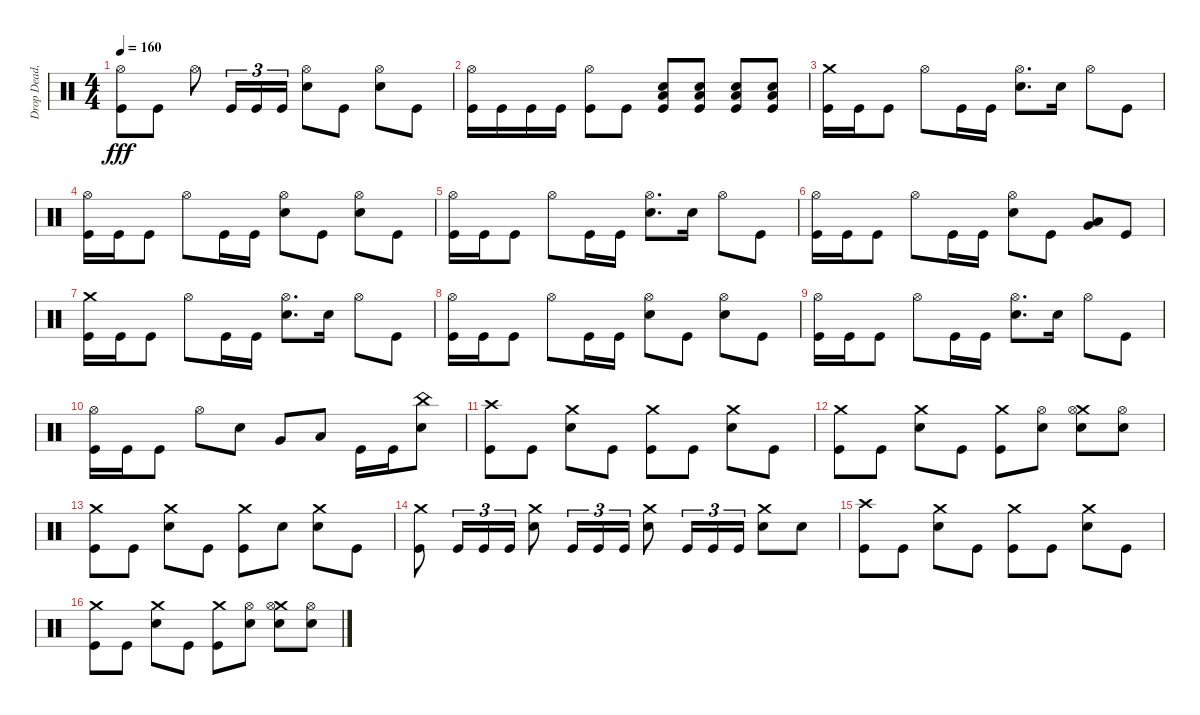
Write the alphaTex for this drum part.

\track ("Drop Dead, Johnny" "Drop Dead,") {instrument percussion}
\staff {score}
\articulation defaults
\ts (4 4)
\tempo 160
\clef neutral
\ks c
("Hi-Hat (open)" "Kick (hit)").8{dy fff} "Kick (hit)".8 "Hi-Hat (open)".8 "Kick (hit)".16{tu (3 2)} "Kick (hit)".16{tu (3 2)} "Kick (hit)".16{tu (3 2)} ("Hi-Hat (open)" "Electric Snare (hit)").8 "Kick (hit)".8 ("Hi-Hat (open)" "Electric Snare (hit)").8 "Kick (hit)".8 |
("Hi-Hat (open)" "Kick (hit)").16 "Kick (hit)".16 "Kick (hit)".16 "Kick (hit)".16 ("Hi-Hat (open)" "Kick (hit)").8 "Kick (hit)".8 ("Low Floor Tom (hit)" "Electric Snare (hit)" "Kick (hit)").8 ("Low Floor Tom (hit)" "Electric Snare (hit)" "Kick (hit)").8 ("Low Floor Tom (hit)" "Electric Snare (hit)" "Kick (hit)").8 ("Low Floor Tom (hit)" "Electric Snare (hit)" "Kick (hit)").8 |
("Crash medium (hit)" "Kick (hit)").16 "Kick (hit)".16 "Kick (hit)".8 "Hi-Hat (open)".8 "Kick (hit)".16 "Kick (hit)".16 ("Hi-Hat (open)" "Electric Snare (hit)").8{d} "Electric Snare (hit)".16 "Hi-Hat (open)".8 "Kick (hit)".8 |
("Hi-Hat (open)" "Kick (hit)").16 "Kick (hit)".16 "Kick (hit)".8 "Hi-Hat (open)".8 "Kick (hit)".16 "Kick (hit)".16 ("Hi-Hat (open)" "Electric Snare (hit)").8 "Kick (hit)".8 ("Hi-Hat (open)" "Electric Snare (hit)").8 "Kick (hit)".8 |
("Hi-Hat (open)" "Kick (hit)").16 "Kick (hit)".16 "Kick (hit)".8 "Hi-Hat (open)".8 "Kick (hit)".16 "Kick (hit)".16 ("Hi-Hat (open)" "Electric Snare (hit)").8{d} "Electric Snare (hit)".16 "Hi-Hat (open)".8 "Kick (hit)".8 |
("Hi-Hat (open)" "Kick (hit)").16 "Kick (hit)".16 "Kick (hit)".8 "Hi-Hat (open)".8 "Kick (hit)".16 "Kick (hit)".16 ("Hi-Hat (open)" "Electric Snare (hit)").8 "Kick (hit)".8 ("Very Low Tom (hit)" "Low Floor Tom (hit)").8 "Kick (hit)".8 |
("Crash medium (hit)" "Kick (hit)").16 "Kick (hit)".16 "Kick (hit)".8 "Hi-Hat (open)".8 "Kick (hit)".16 "Kick (hit)".16 ("Hi-Hat (open)" "Electric Snare (hit)").8{d} "Electric Snare (hit)".16 "Hi-Hat (open)".8 "Kick (hit)".8 |
("Hi-Hat (open)" "Kick (hit)").16 "Kick (hit)".16 "Kick (hit)".8 "Hi-Hat (open)".8 "Kick (hit)".16 "Kick (hit)".16 ("Hi-Hat (open)" "Electric Snare (hit)").8 "Kick (hit)".8 ("Hi-Hat (open)" "Electric Snare (hit)").8 "Kick (hit)".8 |
("Hi-Hat (open)" "Kick (hit)").16 "Kick (hit)".16 "Kick (hit)".8 "Hi-Hat (open)".8 "Kick (hit)".16 "Kick (hit)".16 ("Hi-Hat (open)" "Electric Snare (hit)").8{d} "Electric Snare (hit)".16 "Hi-Hat (open)".8 "Kick (hit)".8 |
("Hi-Hat (open)" "Kick (hit)").16 "Kick (hit)".16 "Kick (hit)".8 "Hi-Hat (open)".8 "Electric Snare (hit)".8 "Very Low Tom (hit)".8 "Low Floor Tom (hit)".8 "Kick (hit)".16 "Kick (hit)".16 ("China (hit)" "Electric Snare (hit)").8 |
("Crash high (hit)" "Kick (hit)").8 "Kick (hit)".8 ("Crash medium (hit)" "Electric Snare (hit)").8 "Kick (hit)".8 ("Crash medium (hit)" "Kick (hit)").8 "Kick (hit)".8 ("Crash medium (hit)" "Electric Snare (hit)").8 "Kick (hit)".8 |
("Crash medium (hit)" "Kick (hit)").8 "Kick (hit)".8 ("Crash medium (hit)" "Electric Snare (hit)").8 "Kick (hit)".8 ("Crash medium (hit)" "Kick (hit)").8 ("Hi-Hat (open)" "Electric Snare (hit)").8 ("Crash medium (hit)" "Hi-Hat (open)" "Electric Snare (hit)").8 ("Hi-Hat (open)" "Electric Snare (hit)").8 |
("Crash medium (hit)" "Kick (hit)").8 "Kick (hit)".8 ("Crash medium (hit)" "Electric Snare (hit)").8 "Kick (hit)".8 ("Crash medium (hit)" "Kick (hit)").8 "Electric Snare (hit)".8 ("Crash medium (hit)" "Electric Snare (hit)").8 "Kick (hit)".8 |
("Crash medium (hit)" "Kick (hit)").8 "Kick (hit)".16{tu (3 2)} "Kick (hit)".16{tu (3 2)} "Kick (hit)".16{tu (3 2)} ("Crash medium (hit)" "Electric Snare (hit)").8 "Kick (hit)".16{tu (3 2)} "Kick (hit)".16{tu (3 2)} "Kick (hit)".16{tu (3 2)} ("Crash medium (hit)" "Electric Snare (hit)").8 "Kick (hit)".16{tu (3 2)} "Kick (hit)".16{tu (3 2)} "Kick (hit)".16{tu (3 2)} ("Crash medium (hit)" "Electric Snare (hit)").8 "Electric Snare (hit)".8 |
("Crash high (hit)" "Kick (hit)").8 "Kick (hit)".8 ("Crash medium (hit)" "Electric Snare (hit)").8 "Kick (hit)".8 ("Crash medium (hit)" "Kick (hit)").8 "Kick (hit)".8 ("Crash medium (hit)" "Electric Snare (hit)").8 "Kick (hit)".8 |
("Crash medium (hit)" "Kick (hit)").8 "Kick (hit)".8 ("Crash medium (hit)" "Electric Snare (hit)").8 "Kick (hit)".8 ("Crash medium (hit)" "Kick (hit)").8 ("Hi-Hat (open)" "Electric Snare (hit)").8 ("Crash medium (hit)" "Hi-Hat (open)" "Electric Snare (hit)").8 ("Hi-Hat (open)" "Electric Snare (hit)").8
